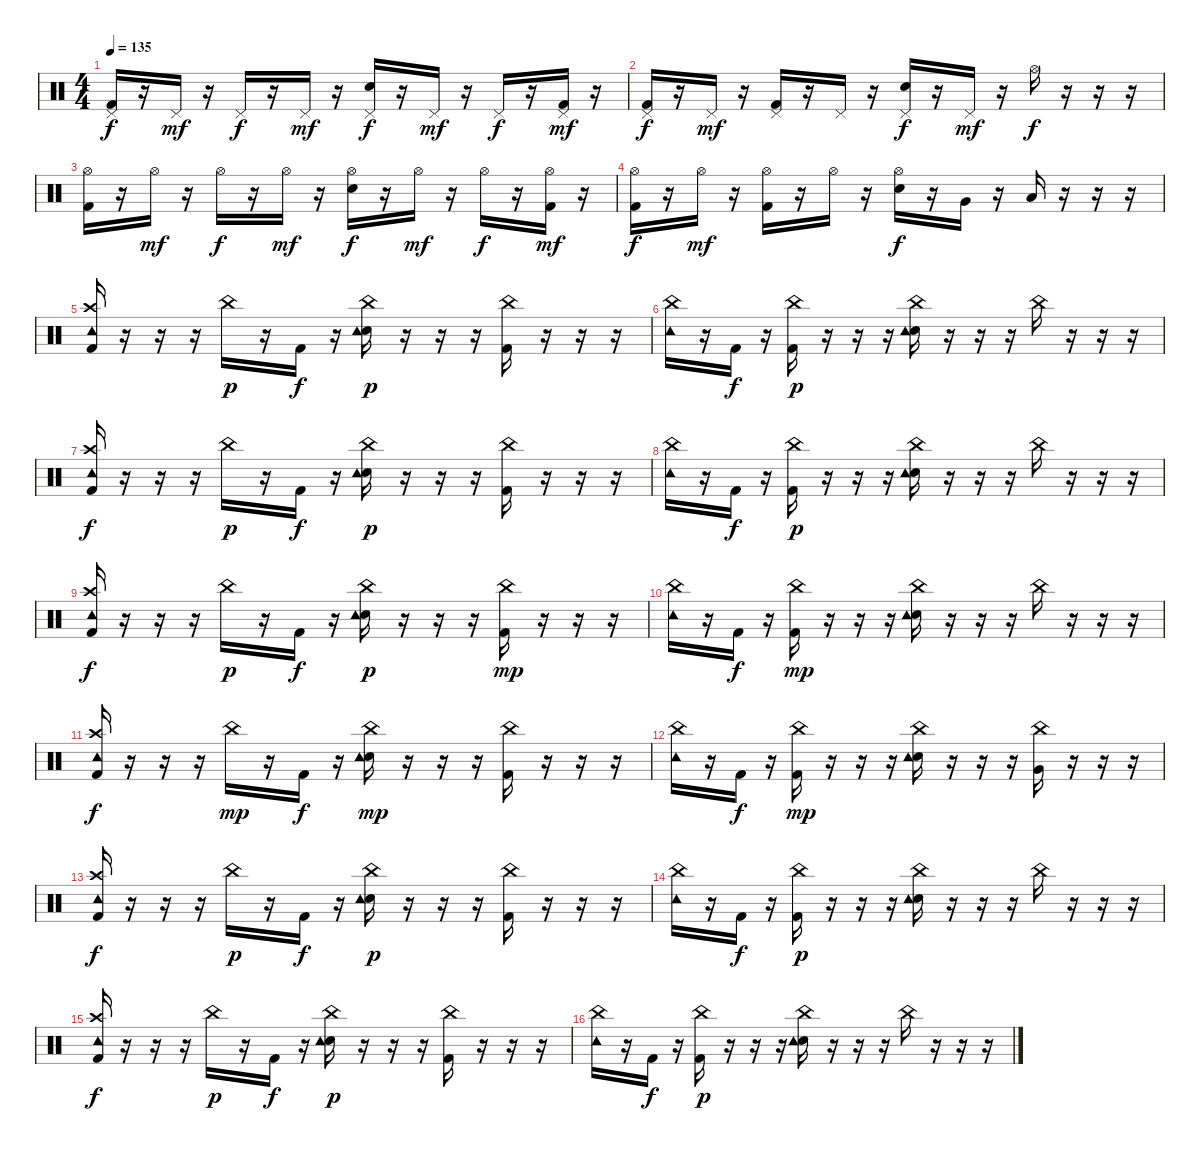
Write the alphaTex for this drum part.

\track (" " " ") {instrument percussion}
\staff {score}
\articulation defaults
\ts (4 4)
\tempo 135
\clef neutral
\ks c
("Pedal Hi-Hat (hit)" "Kick (hit) 2").16{dy f} r.16 "Pedal Hi-Hat (hit)".16{dy mf} r.16 "Pedal Hi-Hat (hit)".16{dy f} r.16 "Pedal Hi-Hat (hit)".16{dy mf} r.16 ("Pedal Hi-Hat (hit)" "Electric Snare (hit)").16{dy f} r.16 "Pedal Hi-Hat (hit)".16{dy mf} r.16 "Pedal Hi-Hat (hit)".16{dy f} r.16 ("Pedal Hi-Hat (hit)" "Kick (hit) 2").16{dy mf} r.16 |
("Pedal Hi-Hat (hit)" "Kick (hit) 2").16{dy f} r.16 "Pedal Hi-Hat (hit)".16{dy mf} r.16 ("Pedal Hi-Hat (hit)" "Kick (hit) 2").16 r.16 "Pedal Hi-Hat (hit)".16 r.16 ("Pedal Hi-Hat (hit)" "Electric Snare (hit)").16{dy f} r.16 "Pedal Hi-Hat (hit)".16{dy mf} r.16 "Hi-Hat (open)".16{dy f} r.16 r.16 r.16 |
("Hi-Hat (open)" "Kick (hit) 2").16 r.16 "Hi-Hat (open)".16{dy mf} r.16 "Hi-Hat (open)".16{dy f} r.16 "Hi-Hat (open)".16{dy mf} r.16 ("Hi-Hat (open)" "Electric Snare (hit)").16{dy f} r.16 "Hi-Hat (open)".16{dy mf} r.16 "Hi-Hat (open)".16{dy f} r.16 ("Hi-Hat (open)" "Kick (hit) 2").16{dy mf} r.16 |
("Hi-Hat (open)" "Kick (hit) 2").16{dy f} r.16 "Hi-Hat (open)".16{dy mf} r.16 ("Hi-Hat (open)" "Kick (hit) 2").16 r.16 "Hi-Hat (open)".16 r.16 ("Hi-Hat (open)" "Electric Snare (hit)").16{dy f} r.16 "Very Low Tom (hit)".16 r.16 "Low Floor Tom (hit)".16 r.16 r.16 r.16 |
("Crash high (hit)" "Tambourine (hit)" "Kick (hit) 2").16 r.16 r.16 r.16 "China (hit)".16{dy p} r.16 "Kick (hit) 2".16{dy f} r.16 ("China (hit)" "Electric Snare (hit)" "Tambourine (hit)").16{dy p} r.16 r.16 r.16 ("China (hit)" "Kick (hit) 2").16 r.16 r.16 r.16 |
("China (hit)" "Tambourine (hit)").16 r.16 "Kick (hit) 2".16{dy f} r.16 ("China (hit)" "Kick (hit) 2").16{dy p} r.16 r.16 r.16 ("China (hit)" "Electric Snare (hit)" "Tambourine (hit)").16 r.16 r.16 r.16 "China (hit)".16 r.16 r.16 r.16 |
("Crash high (hit)" "Tambourine (hit)" "Kick (hit) 2").16{dy f} r.16 r.16 r.16 "China (hit)".16{dy p} r.16 "Kick (hit) 2".16{dy f} r.16 ("China (hit)" "Electric Snare (hit)" "Tambourine (hit)").16{dy p} r.16 r.16 r.16 ("China (hit)" "Kick (hit) 2").16 r.16 r.16 r.16 |
("China (hit)" "Tambourine (hit)").16 r.16 "Kick (hit) 2".16{dy f} r.16 ("China (hit)" "Kick (hit) 2").16{dy p} r.16 r.16 r.16 ("China (hit)" "Electric Snare (hit)" "Tambourine (hit)").16 r.16 r.16 r.16 "China (hit)".16 r.16 r.16 r.16 |
("Crash high (hit)" "Tambourine (hit)" "Kick (hit) 2").16{dy f} r.16 r.16 r.16 "China (hit)".16{dy p} r.16 "Kick (hit) 2".16{dy f} r.16 ("China (hit)" "Electric Snare (hit)" "Tambourine (hit)").16{dy p} r.16 r.16 r.16 ("China (hit)" "Kick (hit) 2").16{dy mp} r.16 r.16 r.16 |
("China (hit)" "Tambourine (hit)").16 r.16 "Kick (hit) 2".16{dy f} r.16 ("China (hit)" "Kick (hit) 2").16{dy mp} r.16 r.16 r.16 ("China (hit)" "Electric Snare (hit)" "Tambourine (hit)").16 r.16 r.16 r.16 "China (hit)".16 r.16 r.16 r.16 |
("Crash high (hit)" "Tambourine (hit)" "Kick (hit) 2").16{dy f} r.16 r.16 r.16 "China (hit)".16{dy mp} r.16 "Kick (hit) 2".16{dy f} r.16 ("China (hit)" "Electric Snare (hit)" "Tambourine (hit)").16{dy mp} r.16 r.16 r.16 ("China (hit)" "Kick (hit) 2").16 r.16 r.16 r.16 |
("China (hit)" "Tambourine (hit)").16 r.16 "Kick (hit) 2".16{dy f} r.16 ("China (hit)" "Kick (hit) 2").16{dy mp} r.16 r.16 r.16 ("China (hit)" "Electric Snare (hit)" "Tambourine (hit)").16 r.16 r.16 r.16 ("China (hit)" "Very Low Tom (hit)").16 r.16 r.16 r.16 |
("Crash high (hit)" "Tambourine (hit)" "Kick (hit) 2").16{dy f} r.16 r.16 r.16 "China (hit)".16{dy p} r.16 "Kick (hit) 2".16{dy f} r.16 ("China (hit)" "Electric Snare (hit)" "Tambourine (hit)").16{dy p} r.16 r.16 r.16 ("China (hit)" "Kick (hit) 2").16 r.16 r.16 r.16 |
("China (hit)" "Tambourine (hit)").16 r.16 "Kick (hit) 2".16{dy f} r.16 ("China (hit)" "Kick (hit) 2").16{dy p} r.16 r.16 r.16 ("China (hit)" "Electric Snare (hit)" "Tambourine (hit)").16 r.16 r.16 r.16 "China (hit)".16 r.16 r.16 r.16 |
("Crash high (hit)" "Tambourine (hit)" "Kick (hit) 2").16{dy f} r.16 r.16 r.16 "China (hit)".16{dy p} r.16 "Kick (hit) 2".16{dy f} r.16 ("China (hit)" "Electric Snare (hit)" "Tambourine (hit)").16{dy p} r.16 r.16 r.16 ("China (hit)" "Kick (hit) 2").16 r.16 r.16 r.16 |
("China (hit)" "Tambourine (hit)").16 r.16 "Kick (hit) 2".16{dy f} r.16 ("China (hit)" "Kick (hit) 2").16{dy p} r.16 r.16 r.16 ("China (hit)" "Electric Snare (hit)" "Tambourine (hit)").16 r.16 r.16 r.16 "China (hit)".16 r.16 r.16 r.16
